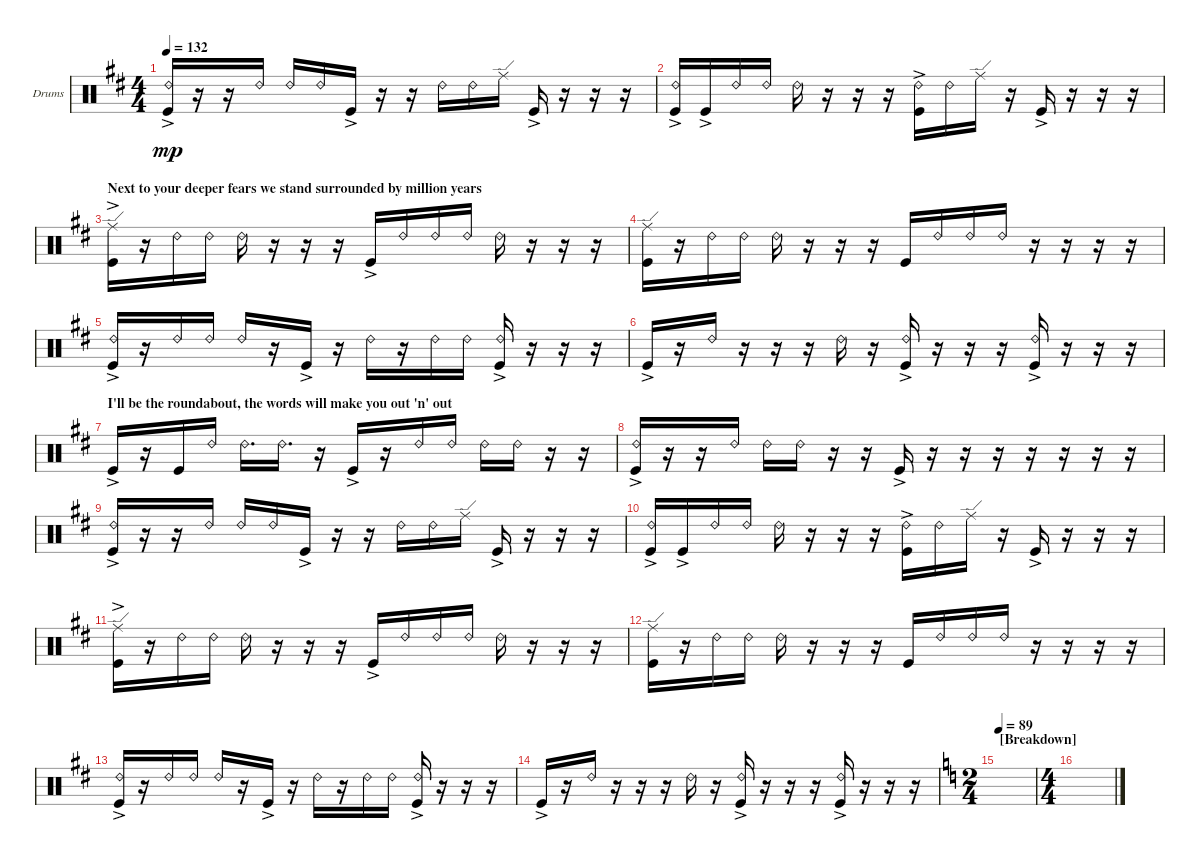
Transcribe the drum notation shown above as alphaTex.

\bracketExtendMode groupsimilarinstruments
\firstSystemTrackNameOrientation horizontal
\otherSystemsTrackNameOrientation horizontal
\track ("Drumkit" "Drums") {instrument percussion}
\staff {score}
\articulation defaults
\ts (4 4)
\tempo 132
\clef neutral
\ks bminor
("Ride (bell) 2" "Kick (hit)"{ac}).16{dy mp} r.16 r.16 "Ride (bell) 2".16 "Ride (bell) 2".16 "Ride (bell) 2".16 "Kick (hit)"{ac}.16 r.16 r.16 "Ride (bell) 2".16 "Ride (bell) 2".16 "Ride (edge)".16 "Kick (hit)"{ac}.16 r.16 r.16 r.16 |
("Ride (bell) 2" "Kick (hit)"{ac}).16 "Kick (hit)"{ac}.16 "Ride (bell) 2".16 "Ride (bell) 2".16 "Ride (bell) 2".16 r.16 r.16 r.16 ("Ride (bell) 2" "Kick (hit)"{ac}).16 "Ride (bell) 2".16 "Ride (edge)".16 r.16 "Kick (hit)"{ac}.16 r.16 r.16 r.16 |
\section ("" "Next to your deeper fears we stand surrounded by million years")
("Ride (edge)" "Kick (hit)"{ac}).16 r.16 "Ride (bell) 2".16 "Ride (bell) 2".16 "Ride (bell) 2".16 r.16 r.16 r.16 "Kick (hit)"{ac}.16 "Ride (bell) 2".16 "Ride (bell) 2".16 "Ride (bell) 2".16 "Ride (bell) 2".16 r.16 r.16 r.16 |
("Ride (edge)" "Kick (hit)").16 r.16 "Ride (bell) 2".16 "Ride (bell) 2".16 "Ride (bell) 2".16 r.16 r.16 r.16 "Kick (hit)".16 "Ride (bell) 2".16 "Ride (bell) 2".16 "Ride (bell) 2".16 r.16 r.16 r.16 r.16 |
("Ride (bell) 2" "Kick (hit)"{ac}).16 r.16 "Ride (bell) 2".16 "Ride (bell) 2".16 "Ride (bell) 2".16 r.16 "Kick (hit)"{ac}.16 r.16 "Ride (bell) 2".16 r.16 "Ride (bell) 2".16 "Ride (bell) 2".16 ("Ride (bell) 2" "Kick (hit)"{ac}).16 r.16 r.16 r.16 |
"Kick (hit)"{ac}.16 r.16 "Ride (bell) 2".16 r.16 r.16 r.16 "Ride (bell) 2".16 r.16 ("Ride (bell) 2" "Kick (hit)"{ac}).16 r.16 r.16 r.16 ("Ride (bell) 2" "Kick (hit)"{ac}).16 r.16 r.16 r.16 |
\section ("" "I'll be the roundabout, the words will make you out 'n' out")
"Kick (hit)"{ac}.16 r.16 "Kick (hit)".16 "Ride (bell) 2".16 "Ride (bell) 2".16{d} "Ride (bell) 2".16{d} r.16 "Kick (hit)"{ac}.16 r.16 "Ride (bell) 2".16 "Ride (bell) 2".16 "Ride (bell) 2".16 "Ride (bell) 2".16 r.16 r.16 |
("Ride (bell) 2" "Kick (hit)"{ac}).16 r.16 r.16 "Ride (bell) 2".16 "Ride (bell) 2".16 "Ride (bell) 2".16 r.16 r.16 "Kick (hit)"{ac}.16 r.16 r.16 r.16 r.16 r.16 r.16 r.16 |
("Ride (bell) 2" "Kick (hit)"{ac}).16 r.16 r.16 "Ride (bell) 2".16 "Ride (bell) 2".16 "Ride (bell) 2".16 "Kick (hit)"{ac}.16 r.16 r.16 "Ride (bell) 2".16 "Ride (bell) 2".16 "Ride (edge)".16 "Kick (hit)"{ac}.16 r.16 r.16 r.16 |
("Ride (bell) 2" "Kick (hit)"{ac}).16 "Kick (hit)"{ac}.16 "Ride (bell) 2".16 "Ride (bell) 2".16 "Ride (bell) 2".16 r.16 r.16 r.16 ("Ride (bell) 2" "Kick (hit)"{ac}).16 "Ride (bell) 2".16 "Ride (edge)".16 r.16 "Kick (hit)"{ac}.16 r.16 r.16 r.16 |
("Ride (edge)" "Kick (hit)"{ac}).16 r.16 "Ride (bell) 2".16 "Ride (bell) 2".16 "Ride (bell) 2".16 r.16 r.16 r.16 "Kick (hit)"{ac}.16 "Ride (bell) 2".16 "Ride (bell) 2".16 "Ride (bell) 2".16 "Ride (bell) 2".16 r.16 r.16 r.16 |
("Ride (edge)" "Kick (hit)").16 r.16 "Ride (bell) 2".16 "Ride (bell) 2".16 "Ride (bell) 2".16 r.16 r.16 r.16 "Kick (hit)".16 "Ride (bell) 2".16 "Ride (bell) 2".16 "Ride (bell) 2".16 r.16 r.16 r.16 r.16 |
("Ride (bell) 2" "Kick (hit)"{ac}).16 r.16 "Ride (bell) 2".16 "Ride (bell) 2".16 "Ride (bell) 2".16 r.16 "Kick (hit)"{ac}.16 r.16 "Ride (bell) 2".16 r.16 "Ride (bell) 2".16 "Ride (bell) 2".16 ("Ride (bell) 2" "Kick (hit)"{ac}).16 r.16 r.16 r.16 |
"Kick (hit)"{ac}.16 r.16 "Ride (bell) 2".16 r.16 r.16 r.16 "Ride (bell) 2".16 r.16 ("Ride (bell) 2" "Kick (hit)"{ac}).16 r.16 r.16 r.16 ("Ride (bell) 2" "Kick (hit)"{ac}).16 r.16 r.16 r.16 |
\ts (2 4)
\section ("" "[Breakdown]")
\tempo (89 0.00625)
\ks aminor
|
\ts (4 4)
